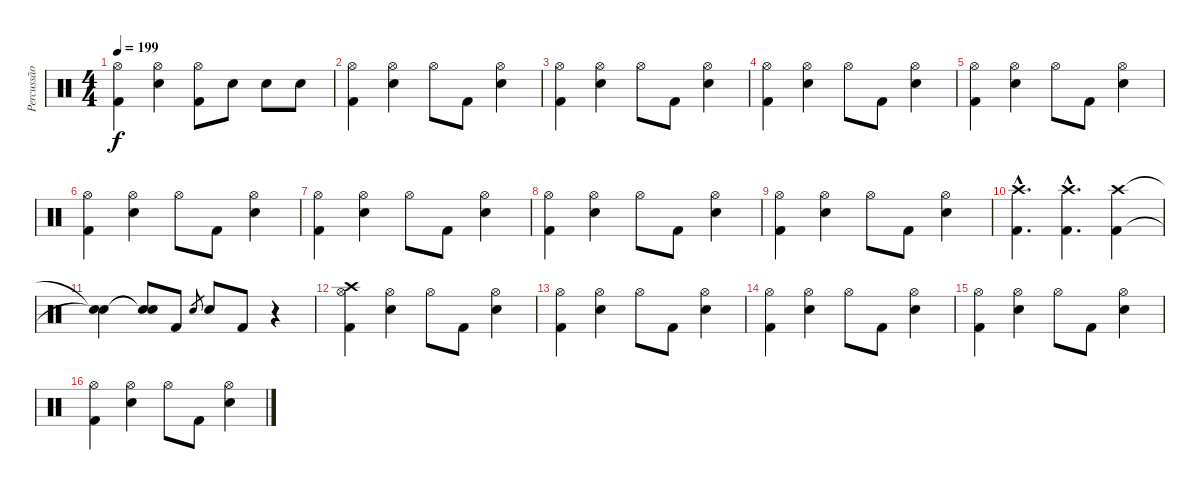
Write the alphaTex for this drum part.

\track ("Percussão" "Percussão") {instrument percussion}
\staff {score}
\articulation defaults
\ts (4 4)
\tempo 199
\clef neutral
\ks c
("Hi-Hat (open)" "Kick (hit) 2").4{dy f} ("Hi-Hat (open)" "Electric Snare (hit)").4 ("Hi-Hat (open)" "Kick (hit) 2").8 "Electric Snare (hit)".8 "Electric Snare (hit)".8 "Electric Snare (hit)".8 |
("Hi-Hat (open)" "Kick (hit) 2").4 ("Hi-Hat (open)" "Electric Snare (hit)").4 "Hi-Hat (open)".8 "Kick (hit) 2".8 ("Hi-Hat (open)" "Electric Snare (hit)").4 |
("Hi-Hat (open)" "Kick (hit) 2").4 ("Hi-Hat (open)" "Electric Snare (hit)").4 "Hi-Hat (open)".8 "Kick (hit) 2".8 ("Hi-Hat (open)" "Electric Snare (hit)").4 |
("Hi-Hat (open)" "Kick (hit) 2").4 ("Hi-Hat (open)" "Electric Snare (hit)").4 "Hi-Hat (open)".8 "Kick (hit) 2".8 ("Hi-Hat (open)" "Electric Snare (hit)").4 |
("Hi-Hat (open)" "Kick (hit) 2").4 ("Hi-Hat (open)" "Electric Snare (hit)").4 "Hi-Hat (open)".8 "Kick (hit) 2".8 ("Hi-Hat (open)" "Electric Snare (hit)").4 |
("Hi-Hat (open)" "Kick (hit) 2").4 ("Hi-Hat (open)" "Electric Snare (hit)").4 "Hi-Hat (open)".8 "Kick (hit) 2".8 ("Hi-Hat (open)" "Electric Snare (hit)").4 |
("Hi-Hat (open)" "Kick (hit) 2").4 ("Hi-Hat (open)" "Electric Snare (hit)").4 "Hi-Hat (open)".8 "Kick (hit) 2".8 ("Hi-Hat (open)" "Electric Snare (hit)").4 |
("Hi-Hat (open)" "Kick (hit) 2").4 ("Hi-Hat (open)" "Electric Snare (hit)").4 "Hi-Hat (open)".8 "Kick (hit) 2".8 ("Hi-Hat (open)" "Electric Snare (hit)").4 |
("Hi-Hat (open)" "Kick (hit) 2").4 ("Hi-Hat (open)" "Electric Snare (hit)").4 "Hi-Hat (open)".8 "Kick (hit) 2".8 ("Hi-Hat (open)" "Electric Snare (hit)").4 |
("Crash high (hit)"{hac} "Kick (hit) 2"{hac}).4{d} ("Crash high (hit)"{hac} "Kick (hit) 2"{hac}).4{d} ("Crash high (hit)" "Kick (hit) 2").4 |
("Snare (hit)"{t} "Snare (hit)"{t}).4 ("Snare (hit)"{t} "Snare (hit)"{t}).8 "Kick (hit) 2".8 "Electric Snare (hit)".8{gr} "Electric Snare (hit)".8 "Kick (hit) 2".8 r.4 |
("Hi-Hat (open)" "Crash high (hit)" "Kick (hit) 2").4 ("Hi-Hat (open)" "Electric Snare (hit)").4 "Hi-Hat (open)".8 "Kick (hit) 2".8 ("Hi-Hat (open)" "Electric Snare (hit)").4 |
("Hi-Hat (open)" "Kick (hit) 2").4 ("Hi-Hat (open)" "Electric Snare (hit)").4 "Hi-Hat (open)".8 "Kick (hit) 2".8 ("Hi-Hat (open)" "Electric Snare (hit)").4 |
("Hi-Hat (open)" "Kick (hit) 2").4 ("Hi-Hat (open)" "Electric Snare (hit)").4 "Hi-Hat (open)".8 "Kick (hit) 2".8 ("Hi-Hat (open)" "Electric Snare (hit)").4 |
("Hi-Hat (open)" "Kick (hit) 2").4 ("Hi-Hat (open)" "Electric Snare (hit)").4 "Hi-Hat (open)".8 "Kick (hit) 2".8 ("Hi-Hat (open)" "Electric Snare (hit)").4 |
("Hi-Hat (open)" "Kick (hit) 2").4 ("Hi-Hat (open)" "Electric Snare (hit)").4 "Hi-Hat (open)".8 "Kick (hit) 2".8 ("Hi-Hat (open)" "Electric Snare (hit)").4
